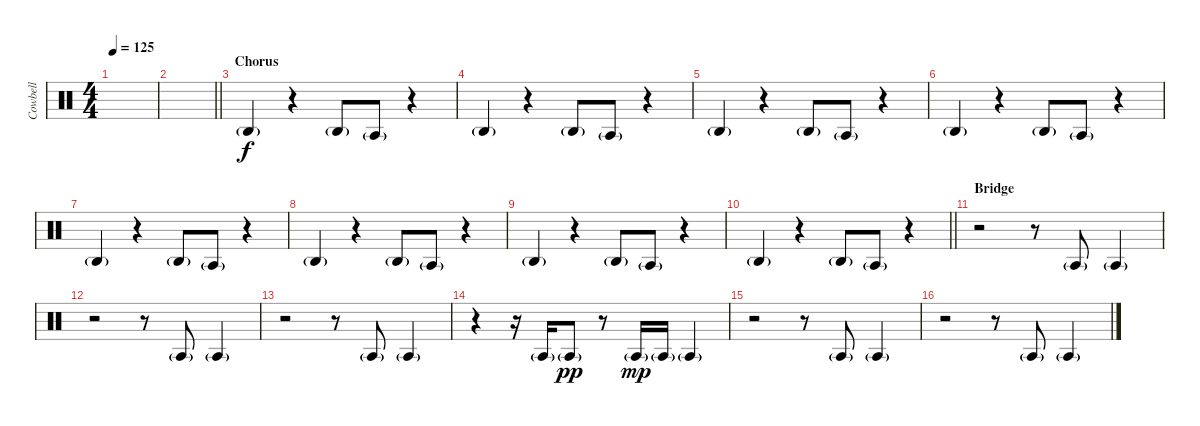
\track ("Cowbell" "Cowbell") {instrument percussion}
\staff {score}
\articulation defaults
\ts (4 4)
\tempo 125
\clef neutral
\ks c
|
\barLineRight lightlight
|
\section ("" "Chorus")
"Agogo high (hit)"{g}.4 r.4 "Agogo high (hit)"{g}.8 "Agogo tow (hit)"{g}.8 r.4 |
"Agogo high (hit)"{g}.4 r.4 "Agogo high (hit)"{g}.8 "Agogo tow (hit)"{g}.8 r.4 |
"Agogo high (hit)"{g}.4 r.4 "Agogo high (hit)"{g}.8 "Agogo tow (hit)"{g}.8 r.4 |
"Agogo high (hit)"{g}.4 r.4 "Agogo high (hit)"{g}.8 "Agogo tow (hit)"{g}.8 r.4 |
"Agogo high (hit)"{g}.4 r.4 "Agogo high (hit)"{g}.8 "Agogo tow (hit)"{g}.8 r.4 |
"Agogo high (hit)"{g}.4 r.4 "Agogo high (hit)"{g}.8 "Agogo tow (hit)"{g}.8 r.4 |
"Agogo high (hit)"{g}.4 r.4 "Agogo high (hit)"{g}.8 "Agogo tow (hit)"{g}.8 r.4 |
\barLineRight lightlight "Agogo high (hit)"{g}.4
r.4 "Agogo high (hit)"{g}.8 "Agogo tow (hit)"{g}.8 r.4 |
\section ("" "Bridge")
r.2 r.8 "Agogo tow (hit)"{g}.8 "Agogo tow (hit)"{g}.4 |
r.2 r.8 "Agogo tow (hit)"{g}.8 "Agogo tow (hit)"{g}.4 |
r.2 r.8 "Agogo tow (hit)"{g}.8 "Agogo tow (hit)"{g}.4 |
r.4 r.16 "Agogo tow (hit)"{g}.16 "Agogo tow (hit)"{g}.8{dy pp} r.8 "Agogo tow (hit)"{g}.16{dy mp} "Agogo tow (hit)"{g}.16 "Agogo tow (hit)"{g}.4 |
r.2 r.8 "Agogo tow (hit)"{g}.8 "Agogo tow (hit)"{g}.4 |
r.2 r.8 "Agogo tow (hit)"{g}.8 "Agogo tow (hit)"{g}.4
